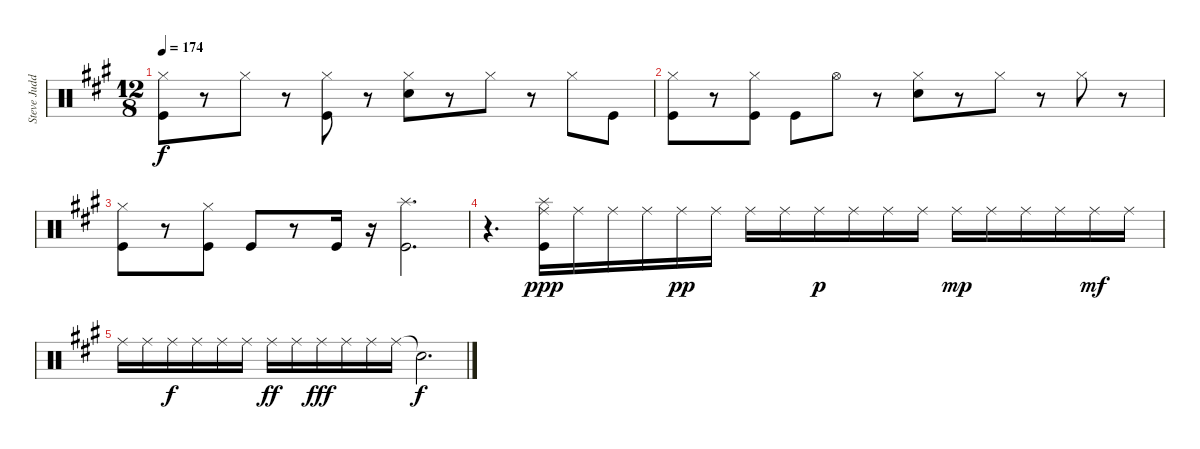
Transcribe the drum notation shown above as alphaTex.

\track ("Steve Judd (Drums)" "Steve Judd") {instrument percussion}
\staff {score}
\articulation defaults
\ts (12 8)
\tempo 174
\clef neutral
\ks a
("Hi-Hat (closed)" "Kick (hit)").8{dy f} r.8 "Hi-Hat (closed)".8 r.8 ("Hi-Hat (closed)" "Kick (hit)").8 r.8 ("Snare (hit) 2" "Hi-Hat (closed)").8 r.8 "Hi-Hat (closed)".8 r.8 "Hi-Hat (closed)".8 "Kick (hit)".8 |
("Hi-Hat (closed)" "Kick (hit)").8 r.8 ("Hi-Hat (closed)" "Kick (hit)").8 "Kick (hit)".8 "Hi-Hat (open)".8 r.8 ("Snare (hit) 2" "Hi-Hat (closed)").8 r.8 "Hi-Hat (closed)".8 r.8 "Hi-Hat (closed)".8 r.8 |
("Hi-Hat (closed)" "Kick (hit)").8 r.8 ("Hi-Hat (closed)" "Kick (hit)").8 "Kick (hit)".8 r.8 "Kick (hit)".16 r.16 ("Splash (hit)" "Kick (hit)").2{d} |
r.4{d} ("Ride (middle)" "Splash (hit)" "Kick (hit)").16{dy ppp} "Ride (middle)".16 "Ride (middle)".16 "Ride (middle)".16 "Ride (middle)".16{dy pp} "Ride (middle)".16 "Ride (middle)".16 "Ride (middle)".16 "Ride (middle)".16{dy p} "Ride (middle)".16 "Ride (middle)".16 "Ride (middle)".16 "Ride (middle)".16{dy mp} "Ride (middle)".16 "Ride (middle)".16 "Ride (middle)".16 "Ride (middle)".16{dy mf} "Ride (middle)".16 |
"Ride (middle)".16 "Ride (middle)".16 "Ride (middle)".16{dy f} "Ride (middle)".16 "Ride (middle)".16 "Ride (middle)".16 "Ride (middle)".16{dy ff} "Ride (middle)".16 "Ride (middle)".16{dy fff} "Ride (middle)".16 "Ride (middle)".16 "Ride (middle)".16 "Snare (hit)"{t}.2{d dy f}
